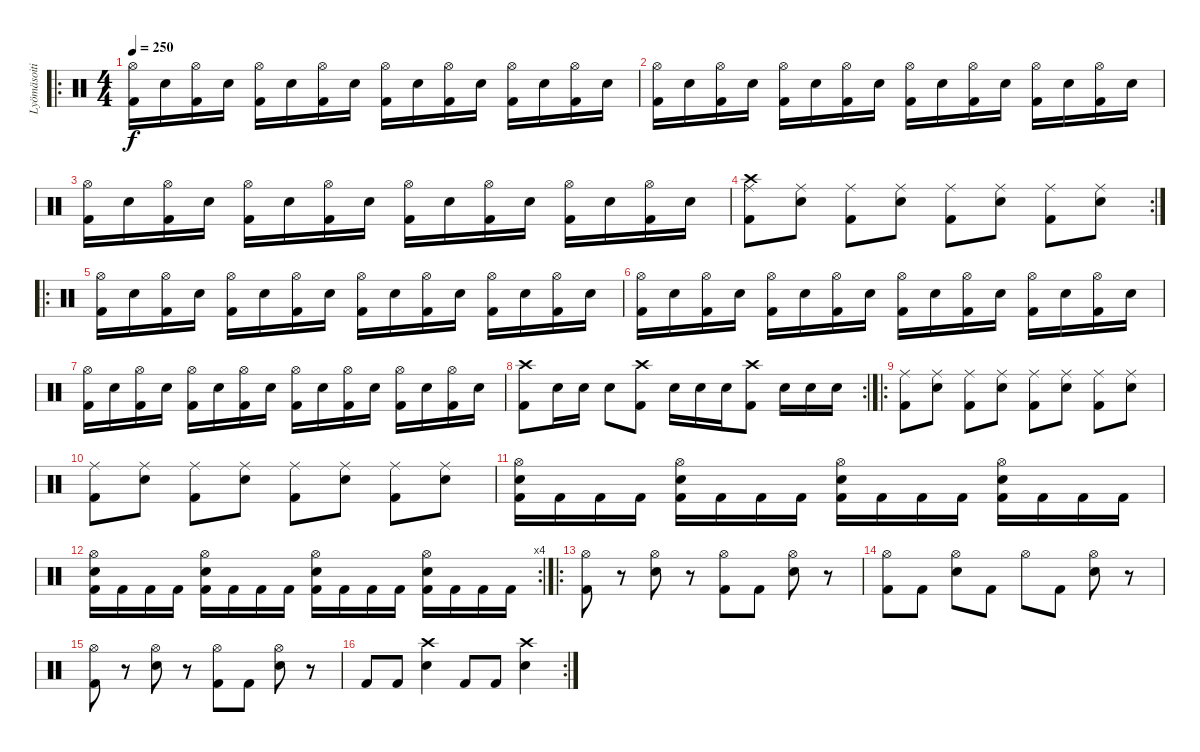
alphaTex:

\track ("Lyömäsoitin" "Lyömäsoiti") {instrument percussion}
\staff {score}
\articulation defaults
\ro
\ts (4 4)
\tempo 250
\clef neutral
\ks c
("Hi-Hat (open)" "Kick (hit) 2").16{dy f} "Electric Snare (hit)".16 ("Hi-Hat (open)" "Kick (hit) 2").16 "Electric Snare (hit)".16 ("Hi-Hat (open)" "Kick (hit) 2").16 "Electric Snare (hit)".16 ("Hi-Hat (open)" "Kick (hit) 2").16 "Electric Snare (hit)".16 ("Hi-Hat (open)" "Kick (hit) 2").16 "Electric Snare (hit)".16 ("Hi-Hat (open)" "Kick (hit) 2").16 "Electric Snare (hit)".16 ("Hi-Hat (open)" "Kick (hit) 2").16 "Electric Snare (hit)".16 ("Hi-Hat (open)" "Kick (hit) 2").16 "Electric Snare (hit)".16 |
("Hi-Hat (open)" "Kick (hit) 2").16 "Electric Snare (hit)".16 ("Hi-Hat (open)" "Kick (hit) 2").16 "Electric Snare (hit)".16 ("Hi-Hat (open)" "Kick (hit) 2").16 "Electric Snare (hit)".16 ("Hi-Hat (open)" "Kick (hit) 2").16 "Electric Snare (hit)".16 ("Hi-Hat (open)" "Kick (hit) 2").16 "Electric Snare (hit)".16 ("Hi-Hat (open)" "Kick (hit) 2").16 "Electric Snare (hit)".16 ("Hi-Hat (open)" "Kick (hit) 2").16 "Electric Snare (hit)".16 ("Hi-Hat (open)" "Kick (hit) 2").16 "Electric Snare (hit)".16 |
("Hi-Hat (open)" "Kick (hit) 2").16 "Electric Snare (hit)".16 ("Hi-Hat (open)" "Kick (hit) 2").16 "Electric Snare (hit)".16 ("Hi-Hat (open)" "Kick (hit) 2").16 "Electric Snare (hit)".16 ("Hi-Hat (open)" "Kick (hit) 2").16 "Electric Snare (hit)".16 ("Hi-Hat (open)" "Kick (hit) 2").16 "Electric Snare (hit)".16 ("Hi-Hat (open)" "Kick (hit) 2").16 "Electric Snare (hit)".16 ("Hi-Hat (open)" "Kick (hit) 2").16 "Electric Snare (hit)".16 ("Hi-Hat (open)" "Kick (hit) 2").16 "Electric Snare (hit)".16 |
\rc 2
("Crash high (hit)" "Ride (middle)" "Kick (hit) 2").8 ("Ride (middle)" "Electric Snare (hit)").8 ("Ride (middle)" "Kick (hit) 2").8 ("Ride (middle)" "Electric Snare (hit)").8 ("Ride (middle)" "Kick (hit) 2").8 ("Ride (middle)" "Electric Snare (hit)").8 ("Ride (middle)" "Kick (hit) 2").8 ("Ride (middle)" "Electric Snare (hit)").8 |
\ro
("Hi-Hat (open)" "Kick (hit) 2").16 "Electric Snare (hit)".16 ("Hi-Hat (open)" "Kick (hit) 2").16 "Electric Snare (hit)".16 ("Hi-Hat (open)" "Kick (hit) 2").16 "Electric Snare (hit)".16 ("Hi-Hat (open)" "Kick (hit) 2").16 "Electric Snare (hit)".16 ("Hi-Hat (open)" "Kick (hit) 2").16 "Electric Snare (hit)".16 ("Hi-Hat (open)" "Kick (hit) 2").16 "Electric Snare (hit)".16 ("Hi-Hat (open)" "Kick (hit) 2").16 "Electric Snare (hit)".16 ("Hi-Hat (open)" "Kick (hit) 2").16 "Electric Snare (hit)".16 |
("Hi-Hat (open)" "Kick (hit) 2").16 "Electric Snare (hit)".16 ("Hi-Hat (open)" "Kick (hit) 2").16 "Electric Snare (hit)".16 ("Hi-Hat (open)" "Kick (hit) 2").16 "Electric Snare (hit)".16 ("Hi-Hat (open)" "Kick (hit) 2").16 "Electric Snare (hit)".16 ("Hi-Hat (open)" "Kick (hit) 2").16 "Electric Snare (hit)".16 ("Hi-Hat (open)" "Kick (hit) 2").16 "Electric Snare (hit)".16 ("Hi-Hat (open)" "Kick (hit) 2").16 "Electric Snare (hit)".16 ("Hi-Hat (open)" "Kick (hit) 2").16 "Electric Snare (hit)".16 |
("Hi-Hat (open)" "Kick (hit) 2").16 "Electric Snare (hit)".16 ("Hi-Hat (open)" "Kick (hit) 2").16 "Electric Snare (hit)".16 ("Hi-Hat (open)" "Kick (hit) 2").16 "Electric Snare (hit)".16 ("Hi-Hat (open)" "Kick (hit) 2").16 "Electric Snare (hit)".16 ("Hi-Hat (open)" "Kick (hit) 2").16 "Electric Snare (hit)".16 ("Hi-Hat (open)" "Kick (hit) 2").16 "Electric Snare (hit)".16 ("Hi-Hat (open)" "Kick (hit) 2").16 "Electric Snare (hit)".16 ("Hi-Hat (open)" "Kick (hit) 2").16 "Electric Snare (hit)".16 |
\rc 2
("Crash high (hit)" "Kick (hit) 2").8 "Electric Snare (hit)".16 "Electric Snare (hit)".16 "Electric Snare (hit)".8 ("Crash high (hit)" "Kick (hit) 2").8 "Electric Snare (hit)".16 "Electric Snare (hit)".16 "Electric Snare (hit)".16 ("Crash high (hit)" "Kick (hit) 2").8 "Electric Snare (hit)".16 "Electric Snare (hit)".16 "Electric Snare (hit)".16 |
\ro
("Ride (middle)" "Kick (hit) 2").8 ("Ride (middle)" "Electric Snare (hit)").8 ("Ride (middle)" "Kick (hit) 2").8 ("Ride (middle)" "Electric Snare (hit)").8 ("Ride (middle)" "Kick (hit) 2").8 ("Ride (middle)" "Electric Snare (hit)").8 ("Ride (middle)" "Kick (hit) 2").8 ("Ride (middle)" "Electric Snare (hit)").8 |
("Ride (middle)" "Kick (hit) 2").8 ("Ride (middle)" "Electric Snare (hit)").8 ("Ride (middle)" "Kick (hit) 2").8 ("Ride (middle)" "Electric Snare (hit)").8 ("Ride (middle)" "Kick (hit) 2").8 ("Ride (middle)" "Electric Snare (hit)").8 ("Ride (middle)" "Kick (hit) 2").8 ("Ride (middle)" "Electric Snare (hit)").8 |
("Hi-Hat (open)" "Electric Snare (hit)" "Kick (hit) 2").16 "Kick (hit) 2".16 "Kick (hit) 2".16 "Kick (hit) 2".16 ("Hi-Hat (open)" "Electric Snare (hit)" "Kick (hit) 2").16 "Kick (hit) 2".16 "Kick (hit) 2".16 "Kick (hit) 2".16 ("Hi-Hat (open)" "Electric Snare (hit)" "Kick (hit) 2").16 "Kick (hit) 2".16 "Kick (hit) 2".16 "Kick (hit) 2".16 ("Hi-Hat (open)" "Electric Snare (hit)" "Kick (hit) 2").16 "Kick (hit) 2".16 "Kick (hit) 2".16 "Kick (hit) 2".16 |
\rc 4
("Hi-Hat (open)" "Electric Snare (hit)" "Kick (hit) 2").16 "Kick (hit) 2".16 "Kick (hit) 2".16 "Kick (hit) 2".16 ("Hi-Hat (open)" "Electric Snare (hit)" "Kick (hit) 2").16 "Kick (hit) 2".16 "Kick (hit) 2".16 "Kick (hit) 2".16 ("Hi-Hat (open)" "Electric Snare (hit)" "Kick (hit) 2").16 "Kick (hit) 2".16 "Kick (hit) 2".16 "Kick (hit) 2".16 ("Hi-Hat (open)" "Electric Snare (hit)" "Kick (hit) 2").16 "Kick (hit) 2".16 "Kick (hit) 2".16 "Kick (hit) 2".16 |
\ro
("Hi-Hat (open)" "Kick (hit) 2").8 r.8 ("Hi-Hat (open)" "Electric Snare (hit)").8 r.8 ("Hi-Hat (open)" "Kick (hit) 2").8 "Kick (hit) 2".8 ("Hi-Hat (open)" "Electric Snare (hit)").8 r.8 |
("Hi-Hat (open)" "Kick (hit) 2").8 "Kick (hit) 2".8 ("Hi-Hat (open)" "Electric Snare (hit)").8 "Kick (hit) 2".8 "Hi-Hat (open)".8 "Kick (hit) 2".8 ("Hi-Hat (open)" "Electric Snare (hit)").8 r.8 |
("Hi-Hat (open)" "Kick (hit) 2").8 r.8 ("Hi-Hat (open)" "Electric Snare (hit)").8 r.8 ("Hi-Hat (open)" "Kick (hit) 2").8 "Kick (hit) 2".8 ("Hi-Hat (open)" "Electric Snare (hit)").8 r.8 |
\rc 2 "Kick (hit) 2".8 "Kick (hit) 2".8
("Electric Snare (hit)" "Crash high (hit)").4 "Kick (hit) 2".8 "Kick (hit) 2".8 ("Electric Snare (hit)" "Crash high (hit)").4
